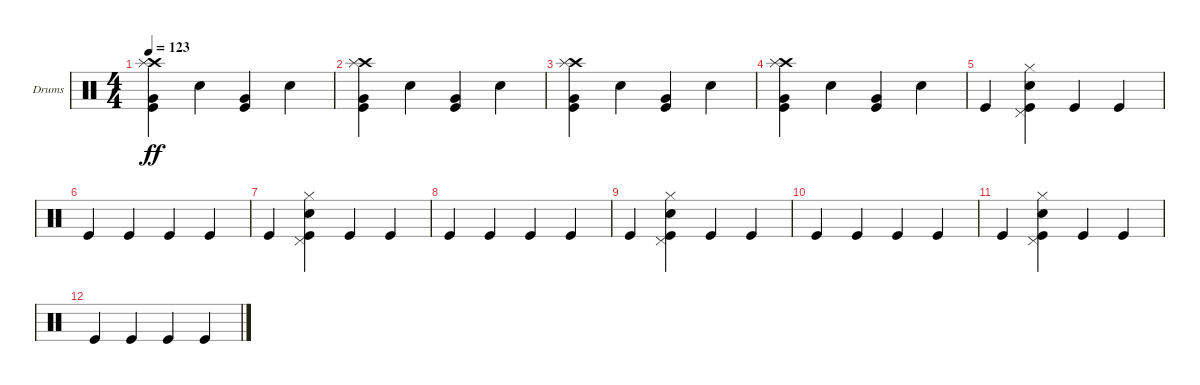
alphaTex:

\defaultSystemsLayout 4
\bracketExtendMode groupsimilarinstruments
\firstSystemTrackNameOrientation horizontal
\otherSystemsTrackNameOrientation horizontal
\track ("Drumkit" "Drums") {instrument percussion}
\staff {score}
\articulation defaults
\ts (4 4)
\tempo 123
\clef neutral
\ks c
("Kick (hit)" "Very Low Tom (hit)" "Crash high (hit)" "Splash (hit)").4{dy ff} "Snare (hit) 2".4 ("Kick (hit)" "Very Low Tom (hit)").4 "Snare (hit) 2".4 |
("Kick (hit)" "Very Low Tom (hit)" "Crash high (hit)" "Splash (hit)").4 "Snare (hit) 2".4 ("Kick (hit)" "Very Low Tom (hit)").4 "Snare (hit) 2".4 |
("Kick (hit)" "Very Low Tom (hit)" "Crash high (hit)" "Splash (hit)").4 "Snare (hit) 2".4 ("Kick (hit)" "Very Low Tom (hit)").4 "Snare (hit) 2".4 |
("Kick (hit)" "Very Low Tom (hit)" "Crash high (hit)" "Splash (hit)").4 "Snare (hit) 2".4 ("Kick (hit)" "Very Low Tom (hit)").4 "Snare (hit) 2".4 |
"Kick (hit)".4 ("Kick (hit)" "Snare (hit) 2" "Pedal Hi-Hat (hit)" "Hi-Hat (closed)").4 "Kick (hit)".4 "Kick (hit)".4 |
"Kick (hit)".4 "Kick (hit)".4 "Kick (hit)".4 "Kick (hit)".4 |
"Kick (hit)".4 ("Kick (hit)" "Snare (hit) 2" "Pedal Hi-Hat (hit)" "Hi-Hat (closed)").4 "Kick (hit)".4 "Kick (hit)".4 |
"Kick (hit)".4 "Kick (hit)".4 "Kick (hit)".4 "Kick (hit)".4 |
"Kick (hit)".4 ("Kick (hit)" "Snare (hit) 2" "Pedal Hi-Hat (hit)" "Hi-Hat (closed)").4 "Kick (hit)".4 "Kick (hit)".4 |
"Kick (hit)".4 "Kick (hit)".4 "Kick (hit)".4 "Kick (hit)".4 |
"Kick (hit)".4 ("Kick (hit)" "Snare (hit) 2" "Pedal Hi-Hat (hit)" "Hi-Hat (closed)").4 "Kick (hit)".4 "Kick (hit)".4 |
"Kick (hit)".4 "Kick (hit)".4 "Kick (hit)".4 "Kick (hit)".4
